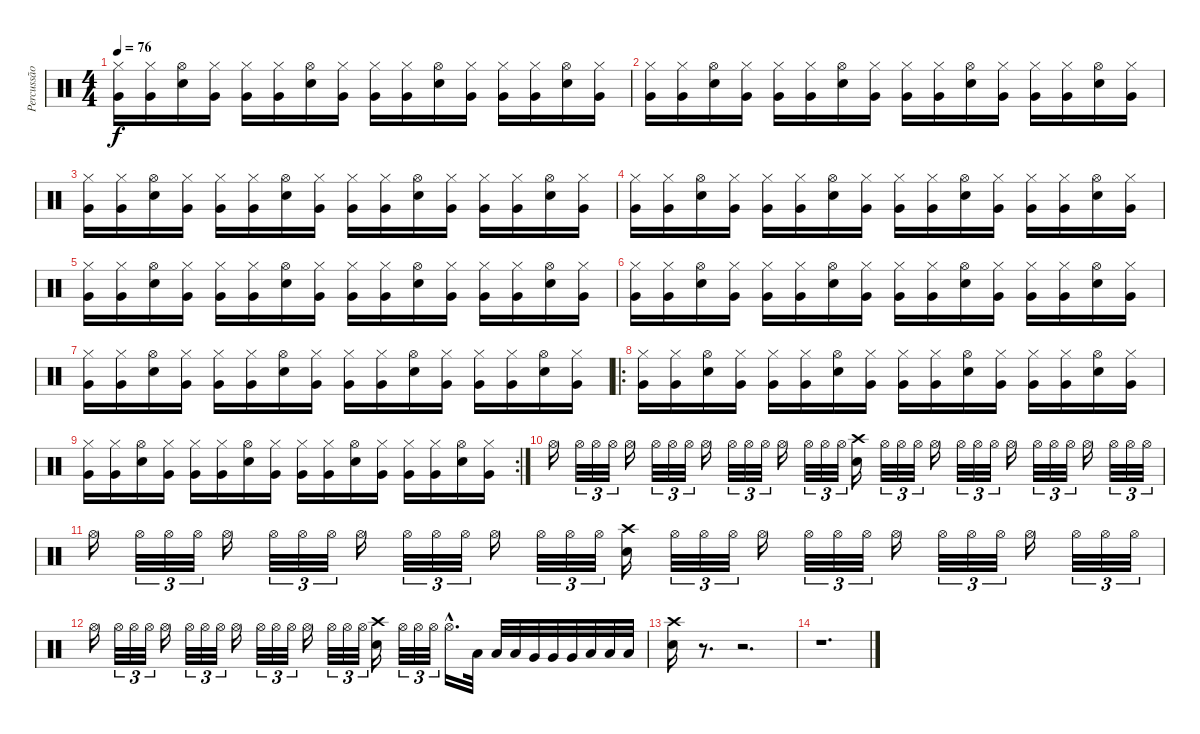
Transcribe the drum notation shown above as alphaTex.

\track ("Percussão" "Percussão") {instrument percussion}
\staff {score}
\articulation defaults
\ts (4 4)
\tempo 76
\clef neutral
\ks c
("Very Low Tom (hit)" "Hi-Hat (closed)").16{dy f} ("Very Low Tom (hit)" "Hi-Hat (closed)").16 ("Snare (hit) 2" "Hi-Hat (open)").16 ("Very Low Tom (hit)" "Hi-Hat (closed)").16 ("Very Low Tom (hit)" "Hi-Hat (closed)").16 ("Very Low Tom (hit)" "Hi-Hat (closed)").16 ("Snare (hit) 2" "Hi-Hat (open)").16 ("Very Low Tom (hit)" "Hi-Hat (closed)").16 ("Very Low Tom (hit)" "Hi-Hat (closed)").16 ("Very Low Tom (hit)" "Hi-Hat (closed)").16 ("Snare (hit) 2" "Hi-Hat (open)").16 ("Very Low Tom (hit)" "Hi-Hat (closed)").16 ("Very Low Tom (hit)" "Hi-Hat (closed)").16 ("Very Low Tom (hit)" "Hi-Hat (closed)").16 ("Snare (hit) 2" "Hi-Hat (open)").16 ("Very Low Tom (hit)" "Hi-Hat (closed)").16 |
("Very Low Tom (hit)" "Hi-Hat (closed)").16 ("Very Low Tom (hit)" "Hi-Hat (closed)").16 ("Snare (hit) 2" "Hi-Hat (open)").16 ("Very Low Tom (hit)" "Hi-Hat (closed)").16 ("Very Low Tom (hit)" "Hi-Hat (closed)").16 ("Very Low Tom (hit)" "Hi-Hat (closed)").16 ("Snare (hit) 2" "Hi-Hat (open)").16 ("Very Low Tom (hit)" "Hi-Hat (closed)").16 ("Very Low Tom (hit)" "Hi-Hat (closed)").16 ("Very Low Tom (hit)" "Hi-Hat (closed)").16 ("Snare (hit) 2" "Hi-Hat (open)").16 ("Very Low Tom (hit)" "Hi-Hat (closed)").16 ("Very Low Tom (hit)" "Hi-Hat (closed)").16 ("Very Low Tom (hit)" "Hi-Hat (closed)").16 ("Snare (hit) 2" "Hi-Hat (open)").16 ("Very Low Tom (hit)" "Hi-Hat (closed)").16 |
("Very Low Tom (hit)" "Hi-Hat (closed)").16 ("Very Low Tom (hit)" "Hi-Hat (closed)").16 ("Snare (hit) 2" "Hi-Hat (open)").16 ("Very Low Tom (hit)" "Hi-Hat (closed)").16 ("Very Low Tom (hit)" "Hi-Hat (closed)").16 ("Very Low Tom (hit)" "Hi-Hat (closed)").16 ("Snare (hit) 2" "Hi-Hat (open)").16 ("Very Low Tom (hit)" "Hi-Hat (closed)").16 ("Very Low Tom (hit)" "Hi-Hat (closed)").16 ("Very Low Tom (hit)" "Hi-Hat (closed)").16 ("Snare (hit) 2" "Hi-Hat (open)").16 ("Very Low Tom (hit)" "Hi-Hat (closed)").16 ("Very Low Tom (hit)" "Hi-Hat (closed)").16 ("Very Low Tom (hit)" "Hi-Hat (closed)").16 ("Snare (hit) 2" "Hi-Hat (open)").16 ("Very Low Tom (hit)" "Hi-Hat (closed)").16 |
("Very Low Tom (hit)" "Hi-Hat (closed)").16 ("Very Low Tom (hit)" "Hi-Hat (closed)").16 ("Snare (hit) 2" "Hi-Hat (open)").16 ("Very Low Tom (hit)" "Hi-Hat (closed)").16 ("Very Low Tom (hit)" "Hi-Hat (closed)").16 ("Very Low Tom (hit)" "Hi-Hat (closed)").16 ("Snare (hit) 2" "Hi-Hat (open)").16 ("Very Low Tom (hit)" "Hi-Hat (closed)").16 ("Very Low Tom (hit)" "Hi-Hat (closed)").16 ("Very Low Tom (hit)" "Hi-Hat (closed)").16 ("Snare (hit) 2" "Hi-Hat (open)").16 ("Very Low Tom (hit)" "Hi-Hat (closed)").16 ("Very Low Tom (hit)" "Hi-Hat (closed)").16 ("Very Low Tom (hit)" "Hi-Hat (closed)").16 ("Snare (hit) 2" "Hi-Hat (open)").16 ("Very Low Tom (hit)" "Hi-Hat (closed)").16 |
("Very Low Tom (hit)" "Hi-Hat (closed)").16 ("Very Low Tom (hit)" "Hi-Hat (closed)").16 ("Snare (hit) 2" "Hi-Hat (open)").16 ("Very Low Tom (hit)" "Hi-Hat (closed)").16 ("Very Low Tom (hit)" "Hi-Hat (closed)").16 ("Very Low Tom (hit)" "Hi-Hat (closed)").16 ("Snare (hit) 2" "Hi-Hat (open)").16 ("Very Low Tom (hit)" "Hi-Hat (closed)").16 ("Very Low Tom (hit)" "Hi-Hat (closed)").16 ("Very Low Tom (hit)" "Hi-Hat (closed)").16 ("Snare (hit) 2" "Hi-Hat (open)").16 ("Very Low Tom (hit)" "Hi-Hat (closed)").16 ("Very Low Tom (hit)" "Hi-Hat (closed)").16 ("Very Low Tom (hit)" "Hi-Hat (closed)").16 ("Snare (hit) 2" "Hi-Hat (open)").16 ("Very Low Tom (hit)" "Hi-Hat (closed)").16 |
("Very Low Tom (hit)" "Hi-Hat (closed)").16 ("Very Low Tom (hit)" "Hi-Hat (closed)").16 ("Snare (hit) 2" "Hi-Hat (open)").16 ("Very Low Tom (hit)" "Hi-Hat (closed)").16 ("Very Low Tom (hit)" "Hi-Hat (closed)").16 ("Very Low Tom (hit)" "Hi-Hat (closed)").16 ("Snare (hit) 2" "Hi-Hat (open)").16 ("Very Low Tom (hit)" "Hi-Hat (closed)").16 ("Very Low Tom (hit)" "Hi-Hat (closed)").16 ("Very Low Tom (hit)" "Hi-Hat (closed)").16 ("Snare (hit) 2" "Hi-Hat (open)").16 ("Very Low Tom (hit)" "Hi-Hat (closed)").16 ("Very Low Tom (hit)" "Hi-Hat (closed)").16 ("Very Low Tom (hit)" "Hi-Hat (closed)").16 ("Snare (hit) 2" "Hi-Hat (open)").16 ("Very Low Tom (hit)" "Hi-Hat (closed)").16 |
("Very Low Tom (hit)" "Hi-Hat (closed)").16 ("Very Low Tom (hit)" "Hi-Hat (closed)").16 ("Snare (hit) 2" "Hi-Hat (open)").16 ("Very Low Tom (hit)" "Hi-Hat (closed)").16 ("Very Low Tom (hit)" "Hi-Hat (closed)").16 ("Very Low Tom (hit)" "Hi-Hat (closed)").16 ("Snare (hit) 2" "Hi-Hat (open)").16 ("Very Low Tom (hit)" "Hi-Hat (closed)").16 ("Very Low Tom (hit)" "Hi-Hat (closed)").16 ("Very Low Tom (hit)" "Hi-Hat (closed)").16 ("Snare (hit) 2" "Hi-Hat (open)").16 ("Very Low Tom (hit)" "Hi-Hat (closed)").16 ("Very Low Tom (hit)" "Hi-Hat (closed)").16 ("Very Low Tom (hit)" "Hi-Hat (closed)").16 ("Snare (hit) 2" "Hi-Hat (open)").16 ("Very Low Tom (hit)" "Hi-Hat (closed)").16 |
\ro
("Very Low Tom (hit)" "Hi-Hat (closed)").16 ("Very Low Tom (hit)" "Hi-Hat (closed)").16 ("Snare (hit) 2" "Hi-Hat (open)").16 ("Very Low Tom (hit)" "Hi-Hat (closed)").16 ("Very Low Tom (hit)" "Hi-Hat (closed)").16 ("Very Low Tom (hit)" "Hi-Hat (closed)").16 ("Snare (hit) 2" "Hi-Hat (open)").16 ("Very Low Tom (hit)" "Hi-Hat (closed)").16 ("Very Low Tom (hit)" "Hi-Hat (closed)").16 ("Very Low Tom (hit)" "Hi-Hat (closed)").16 ("Snare (hit) 2" "Hi-Hat (open)").16 ("Very Low Tom (hit)" "Hi-Hat (closed)").16 ("Very Low Tom (hit)" "Hi-Hat (closed)").16 ("Very Low Tom (hit)" "Hi-Hat (closed)").16 ("Snare (hit) 2" "Hi-Hat (open)").16 ("Very Low Tom (hit)" "Hi-Hat (closed)").16 |
\rc 2
("Very Low Tom (hit)" "Hi-Hat (closed)").16 ("Very Low Tom (hit)" "Hi-Hat (closed)").16 ("Snare (hit) 2" "Hi-Hat (open)").16 ("Very Low Tom (hit)" "Hi-Hat (closed)").16 ("Very Low Tom (hit)" "Hi-Hat (closed)").16 ("Very Low Tom (hit)" "Hi-Hat (closed)").16 ("Snare (hit) 2" "Hi-Hat (open)").16 ("Very Low Tom (hit)" "Hi-Hat (closed)").16 ("Very Low Tom (hit)" "Hi-Hat (closed)").16 ("Very Low Tom (hit)" "Hi-Hat (closed)").16 ("Snare (hit) 2" "Hi-Hat (open)").16 ("Very Low Tom (hit)" "Hi-Hat (closed)").16 ("Very Low Tom (hit)" "Hi-Hat (closed)").16 ("Very Low Tom (hit)" "Hi-Hat (closed)").16 ("Snare (hit) 2" "Hi-Hat (open)").16 ("Very Low Tom (hit)" "Hi-Hat (closed)").16 |
"Hi-Hat (open)".16 "Hi-Hat (open)".32{tu (3 2)} "Hi-Hat (open)".32{tu (3 2)} "Hi-Hat (open)".32{tu (3 2)} "Hi-Hat (open)".16 "Hi-Hat (open)".32{tu (3 2)} "Hi-Hat (open)".32{tu (3 2)} "Hi-Hat (open)".32{tu (3 2)} "Hi-Hat (open)".16 "Hi-Hat (open)".32{tu (3 2)} "Hi-Hat (open)".32{tu (3 2)} "Hi-Hat (open)".32{tu (3 2)} "Hi-Hat (open)".16 "Hi-Hat (open)".32{tu (3 2)} "Hi-Hat (open)".32{tu (3 2)} "Hi-Hat (open)".32{tu (3 2)} ("Snare (hit) 2" "Crash high (hit)").16 "Hi-Hat (open)".32{tu (3 2)} "Hi-Hat (open)".32{tu (3 2)} "Hi-Hat (open)".32{tu (3 2)} "Hi-Hat (open)".16 "Hi-Hat (open)".32{tu (3 2)} "Hi-Hat (open)".32{tu (3 2)} "Hi-Hat (open)".32{tu (3 2)} "Hi-Hat (open)".16 "Hi-Hat (open)".32{tu (3 2)} "Hi-Hat (open)".32{tu (3 2)} "Hi-Hat (open)".32{tu (3 2)} "Hi-Hat (open)".16 "Hi-Hat (open)".32{tu (3 2)} "Hi-Hat (open)".32{tu (3 2)} "Hi-Hat (open)".32{tu (3 2)} |
"Hi-Hat (open)".16 "Hi-Hat (open)".32{tu (3 2)} "Hi-Hat (open)".32{tu (3 2)} "Hi-Hat (open)".32{tu (3 2)} "Hi-Hat (open)".16 "Hi-Hat (open)".32{tu (3 2)} "Hi-Hat (open)".32{tu (3 2)} "Hi-Hat (open)".32{tu (3 2)} "Hi-Hat (open)".16 "Hi-Hat (open)".32{tu (3 2)} "Hi-Hat (open)".32{tu (3 2)} "Hi-Hat (open)".32{tu (3 2)} "Hi-Hat (open)".16 "Hi-Hat (open)".32{tu (3 2)} "Hi-Hat (open)".32{tu (3 2)} "Hi-Hat (open)".32{tu (3 2)} ("Snare (hit) 2" "Crash high (hit)").16 "Hi-Hat (open)".32{tu (3 2)} "Hi-Hat (open)".32{tu (3 2)} "Hi-Hat (open)".32{tu (3 2)} "Hi-Hat (open)".16 "Hi-Hat (open)".32{tu (3 2)} "Hi-Hat (open)".32{tu (3 2)} "Hi-Hat (open)".32{tu (3 2)} "Hi-Hat (open)".16 "Hi-Hat (open)".32{tu (3 2)} "Hi-Hat (open)".32{tu (3 2)} "Hi-Hat (open)".32{tu (3 2)} "Hi-Hat (open)".16 "Hi-Hat (open)".32{tu (3 2)} "Hi-Hat (open)".32{tu (3 2)} "Hi-Hat (open)".32{tu (3 2)} |
"Hi-Hat (open)".16 "Hi-Hat (open)".32{tu (3 2)} "Hi-Hat (open)".32{tu (3 2)} "Hi-Hat (open)".32{tu (3 2)} "Hi-Hat (open)".16 "Hi-Hat (open)".32{tu (3 2)} "Hi-Hat (open)".32{tu (3 2)} "Hi-Hat (open)".32{tu (3 2)} "Hi-Hat (open)".16 "Hi-Hat (open)".32{tu (3 2)} "Hi-Hat (open)".32{tu (3 2)} "Hi-Hat (open)".32{tu (3 2)} "Hi-Hat (open)".16 "Hi-Hat (open)".32{tu (3 2)} "Hi-Hat (open)".32{tu (3 2)} "Hi-Hat (open)".32{tu (3 2)} ("Snare (hit) 2" "Crash high (hit)").16 "Hi-Hat (open)".32{tu (3 2)} "Hi-Hat (open)".32{tu (3 2)} "Hi-Hat (open)".32{tu (3 2)} "Hi-Hat (open)"{hac}.16{d} "Low Tom (hit)".32 "Low Tom (hit)".32 "Low Tom (hit)".32 "Very Low Tom (hit)".32 "Very Low Tom (hit)".32 "Very Low Tom (hit)".32 "Low Floor Tom (hit)".32 "Low Floor Tom (hit)".32 "Low Floor Tom (hit)".32 |
("Crash high (hit)" "Snare (hit) 2").16 r.8{d} r.2{d} |
r.1{d}
